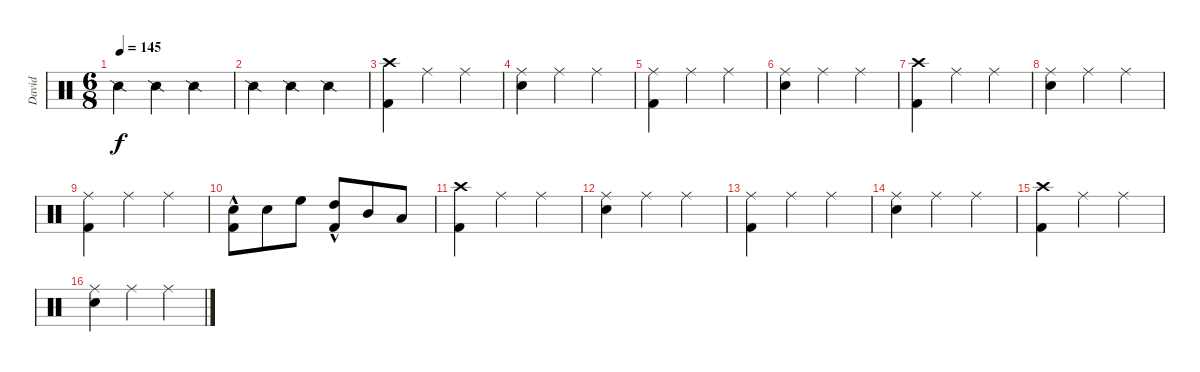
\track ("David" "David") {instrument percussion}
\staff {score}
\articulation defaults
\ts (6 8)
\tempo 145
\clef neutral
\ks c "Snare (side stick) 2".4{dy f} "Snare (side stick) 2".4 "Snare (side stick) 2".4
|
"Snare (side stick) 2".4 "Snare (side stick) 2".4 "Snare (side stick) 2".4 |
("Crash high (hit)" "Kick (hit) 2").4 "Ride (middle)".4 "Ride (middle)".4 |
("Ride (middle)" "Electric Snare (hit)").4 "Ride (middle)".4 "Ride (middle)".4 |
("Ride (middle)" "Kick (hit) 2").4 "Ride (middle)".4 "Ride (middle)".4 |
("Ride (middle)" "Electric Snare (hit)").4 "Ride (middle)".4 "Ride (middle)".4 |
("Crash high (hit)" "Kick (hit) 2").4 "Ride (middle)".4 "Ride (middle)".4 |
("Ride (middle)" "Electric Snare (hit)").4 "Ride (middle)".4 "Ride (middle)".4 |
("Ride (middle)" "Kick (hit) 2").4 "Ride (middle)".4 "Ride (middle)".4 |
("Electric Snare (hit)" "Kick (hit) 2"{hac}).8 "Electric Snare (hit)".8 "High Floor Tom (hit)".8 ("High Tom (hit)" "Kick (hit) 2"{hac}).8 "Mid Tom (hit)".8 "Low Tom (hit)".8 |
("Crash high (hit)" "Kick (hit) 2").4 "Ride (middle)".4 "Ride (middle)".4 |
("Ride (middle)" "Electric Snare (hit)").4 "Ride (middle)".4 "Ride (middle)".4 |
("Ride (middle)" "Kick (hit) 2").4 "Ride (middle)".4 "Ride (middle)".4 |
("Ride (middle)" "Electric Snare (hit)").4 "Ride (middle)".4 "Ride (middle)".4 |
("Crash high (hit)" "Kick (hit) 2").4 "Ride (middle)".4 "Ride (middle)".4 |
("Ride (middle)" "Electric Snare (hit)").4 "Ride (middle)".4 "Ride (middle)".4
